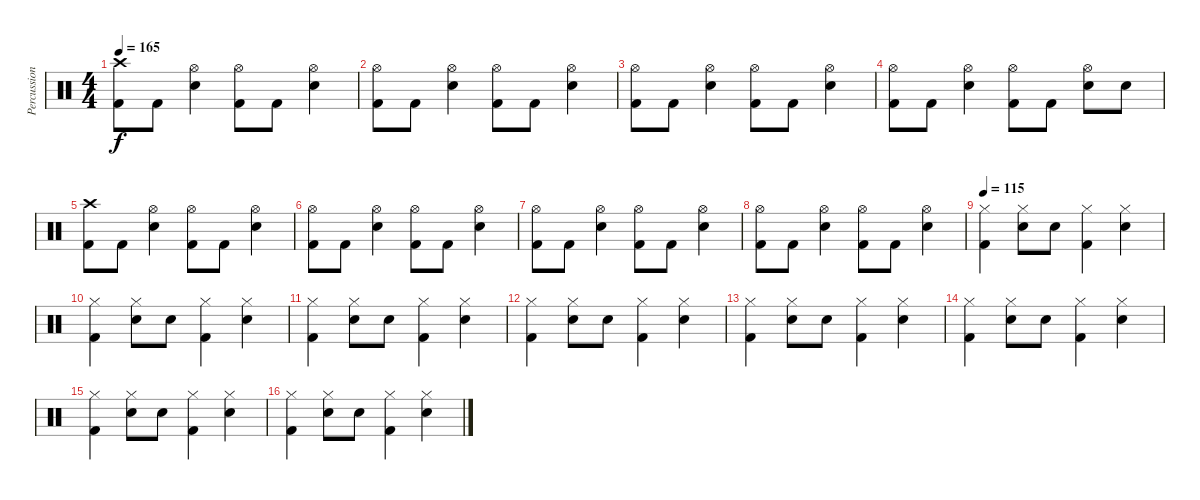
\track ("Percussion" "Percussion") {instrument percussion}
\staff {score}
\articulation defaults
\ts (4 4)
\tempo 165
\clef neutral
\ks c
("Crash high (hit)" "Kick (hit) 2").8{dy f} "Kick (hit) 2".8 ("Hi-Hat (open)" "Snare (hit) 2").4 ("Hi-Hat (open)" "Kick (hit) 2").8 "Kick (hit) 2".8 ("Hi-Hat (open)" "Snare (hit) 2").4 |
("Hi-Hat (open)" "Kick (hit) 2").8 "Kick (hit) 2".8 ("Hi-Hat (open)" "Snare (hit) 2").4 ("Hi-Hat (open)" "Kick (hit) 2").8 "Kick (hit) 2".8 ("Hi-Hat (open)" "Snare (hit) 2").4 |
("Hi-Hat (open)" "Kick (hit) 2").8 "Kick (hit) 2".8 ("Hi-Hat (open)" "Snare (hit) 2").4 ("Hi-Hat (open)" "Kick (hit) 2").8 "Kick (hit) 2".8 ("Hi-Hat (open)" "Snare (hit) 2").4 |
("Hi-Hat (open)" "Kick (hit) 2").8 "Kick (hit) 2".8 ("Hi-Hat (open)" "Snare (hit) 2").4 ("Hi-Hat (open)" "Kick (hit) 2").8 "Kick (hit) 2".8 ("Hi-Hat (open)" "Snare (hit) 2").8 "Snare (hit) 2".8 |
("Crash high (hit)" "Kick (hit) 2").8 "Kick (hit) 2".8 ("Hi-Hat (open)" "Snare (hit) 2").4 ("Hi-Hat (open)" "Kick (hit) 2").8 "Kick (hit) 2".8 ("Hi-Hat (open)" "Snare (hit) 2").4 |
("Hi-Hat (open)" "Kick (hit) 2").8 "Kick (hit) 2".8 ("Hi-Hat (open)" "Snare (hit) 2").4 ("Hi-Hat (open)" "Kick (hit) 2").8 "Kick (hit) 2".8 ("Hi-Hat (open)" "Snare (hit) 2").4 |
("Hi-Hat (open)" "Kick (hit) 2").8 "Kick (hit) 2".8 ("Hi-Hat (open)" "Snare (hit) 2").4 ("Hi-Hat (open)" "Kick (hit) 2").8 "Kick (hit) 2".8 ("Hi-Hat (open)" "Snare (hit) 2").4 |
("Hi-Hat (open)" "Kick (hit) 2").8 "Kick (hit) 2".8 ("Hi-Hat (open)" "Snare (hit) 2").4 ("Hi-Hat (open)" "Kick (hit) 2").8 "Kick (hit) 2".8 ("Hi-Hat (open)" "Snare (hit) 2").4 |
\tempo 115
("Hi-Hat (closed)" "Kick (hit) 2").4 ("Hi-Hat (closed)" "Snare (hit) 2").8 "Snare (hit) 2".8 ("Hi-Hat (closed)" "Kick (hit) 2").4 ("Hi-Hat (closed)" "Snare (hit) 2").4 |
("Hi-Hat (closed)" "Kick (hit) 2").4 ("Hi-Hat (closed)" "Snare (hit) 2").8 "Snare (hit) 2".8 ("Hi-Hat (closed)" "Kick (hit) 2").4 ("Hi-Hat (closed)" "Snare (hit) 2").4 |
("Hi-Hat (closed)" "Kick (hit) 2").4 ("Hi-Hat (closed)" "Snare (hit) 2").8 "Snare (hit) 2".8 ("Hi-Hat (closed)" "Kick (hit) 2").4 ("Hi-Hat (closed)" "Snare (hit) 2").4 |
("Hi-Hat (closed)" "Kick (hit) 2").4 ("Hi-Hat (closed)" "Snare (hit) 2").8 "Snare (hit) 2".8 ("Hi-Hat (closed)" "Kick (hit) 2").4 ("Hi-Hat (closed)" "Snare (hit) 2").4 |
("Hi-Hat (closed)" "Kick (hit) 2").4 ("Hi-Hat (closed)" "Snare (hit) 2").8 "Snare (hit) 2".8 ("Hi-Hat (closed)" "Kick (hit) 2").4 ("Hi-Hat (closed)" "Snare (hit) 2").4 |
("Hi-Hat (closed)" "Kick (hit) 2").4 ("Hi-Hat (closed)" "Snare (hit) 2").8 "Snare (hit) 2".8 ("Hi-Hat (closed)" "Kick (hit) 2").4 ("Hi-Hat (closed)" "Snare (hit) 2").4 |
("Hi-Hat (closed)" "Kick (hit) 2").4 ("Hi-Hat (closed)" "Snare (hit) 2").8 "Snare (hit) 2".8 ("Hi-Hat (closed)" "Kick (hit) 2").4 ("Hi-Hat (closed)" "Snare (hit) 2").4 |
("Hi-Hat (closed)" "Kick (hit) 2").4 ("Hi-Hat (closed)" "Snare (hit) 2").8 "Snare (hit) 2".8 ("Hi-Hat (closed)" "Kick (hit) 2").4 ("Hi-Hat (closed)" "Snare (hit) 2").4
